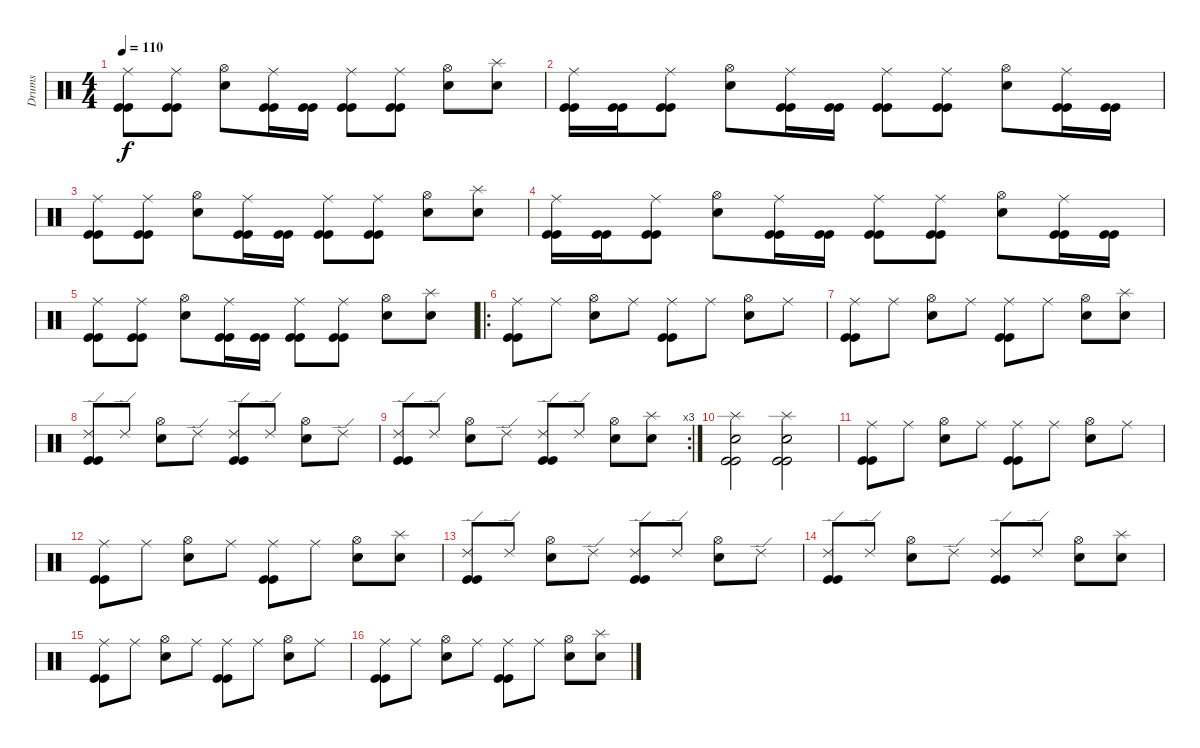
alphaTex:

\track ("Drums" "Drums") {instrument percussion}
\staff {score}
\articulation defaults
\ts (4 4)
\tempo 110
\clef neutral
\ks c
("Ride (middle)" "Kick (hit)" "Kick (hit)").8{dy f} ("Ride (middle)" "Kick (hit)" "Kick (hit)").8 ("Hi-Hat (open)" "Snare (hit) 2").8 ("Ride (middle)" "Kick (hit)" "Kick (hit)").16 ("Kick (hit)" "Kick (hit)").16 ("Ride (middle)" "Kick (hit)" "Kick (hit)").8 ("Ride (middle)" "Kick (hit)" "Kick (hit)").8 ("Hi-Hat (open)" "Snare (hit) 2").8 ("Splash (hit)" "Snare (hit) 2").8 |
("Ride (middle)" "Kick (hit)" "Kick (hit)").16 ("Kick (hit)" "Kick (hit)").16 ("Ride (middle)" "Kick (hit)" "Kick (hit)").8 ("Hi-Hat (open)" "Snare (hit) 2").8 ("Ride (middle)" "Kick (hit)" "Kick (hit)").16 ("Kick (hit)" "Kick (hit)").16 ("Ride (middle)" "Kick (hit)" "Kick (hit)").8 ("Ride (middle)" "Kick (hit)" "Kick (hit)").8 ("Hi-Hat (open)" "Snare (hit) 2").8 ("Ride (middle)" "Kick (hit)" "Kick (hit)").16 ("Kick (hit)" "Kick (hit)").16 |
("Ride (middle)" "Kick (hit)" "Kick (hit)").8 ("Ride (middle)" "Kick (hit)" "Kick (hit)").8 ("Hi-Hat (open)" "Snare (hit) 2").8 ("Ride (middle)" "Kick (hit)" "Kick (hit)").16 ("Kick (hit)" "Kick (hit)").16 ("Ride (middle)" "Kick (hit)" "Kick (hit)").8 ("Ride (middle)" "Kick (hit)" "Kick (hit)").8 ("Hi-Hat (open)" "Snare (hit) 2").8 ("Splash (hit)" "Snare (hit) 2").8 |
("Ride (middle)" "Kick (hit)" "Kick (hit)").16 ("Kick (hit)" "Kick (hit)").16 ("Ride (middle)" "Kick (hit)" "Kick (hit)").8 ("Hi-Hat (open)" "Snare (hit) 2").8 ("Ride (middle)" "Kick (hit)" "Kick (hit)").16 ("Kick (hit)" "Kick (hit)").16 ("Ride (middle)" "Kick (hit)" "Kick (hit)").8 ("Ride (middle)" "Kick (hit)" "Kick (hit)").8 ("Hi-Hat (open)" "Snare (hit) 2").8 ("Ride (middle)" "Kick (hit)" "Kick (hit)").16 ("Kick (hit)" "Kick (hit)").16 |
("Ride (middle)" "Kick (hit)" "Kick (hit)").8 ("Ride (middle)" "Kick (hit)" "Kick (hit)").8 ("Hi-Hat (open)" "Snare (hit) 2").8 ("Ride (middle)" "Kick (hit)" "Kick (hit)").16 ("Kick (hit)" "Kick (hit)").16 ("Ride (middle)" "Kick (hit)" "Kick (hit)").8 ("Ride (middle)" "Kick (hit)" "Kick (hit)").8 ("Hi-Hat (open)" "Snare (hit) 2").8 ("Splash (hit)" "Snare (hit) 2").8 |
\ro
("Ride (middle)" "Kick (hit)" "Kick (hit)").8 "Ride (middle)".8 ("Hi-Hat (open)" "Snare (hit) 2").8 "Ride (middle)".8 ("Ride (middle)" "Kick (hit)" "Kick (hit)").8 "Ride (middle)".8 ("Hi-Hat (open)" "Snare (hit) 2").8 "Ride (middle)".8 |
("Ride (middle)" "Kick (hit)" "Kick (hit)").8 "Ride (middle)".8 ("Hi-Hat (open)" "Snare (hit) 2").8 "Ride (middle)".8 ("Ride (middle)" "Kick (hit)" "Kick (hit)").8 "Ride (middle)".8 ("Hi-Hat (open)" "Snare (hit) 2").8 ("Splash (hit)" "Snare (hit) 2").8 |
("Ride (edge) 2" "Kick (hit)" "Kick (hit)").8 "Ride (edge) 2".8 ("Hi-Hat (open)" "Snare (hit) 2").8 "Ride (edge) 2".8 ("Ride (edge) 2" "Kick (hit)" "Kick (hit)").8 "Ride (edge) 2".8 ("Hi-Hat (open)" "Snare (hit) 2").8 "Ride (edge) 2".8 |
\rc 3
("Ride (edge) 2" "Kick (hit)" "Kick (hit)").8 "Ride (edge) 2".8 ("Hi-Hat (open)" "Snare (hit) 2").8 "Ride (edge) 2".8 ("Ride (edge) 2" "Kick (hit)" "Kick (hit)").8 "Ride (edge) 2".8 ("Hi-Hat (open)" "Snare (hit) 2").8 ("Splash (hit)" "Snare (hit) 2").8 |
("Splash (hit)" "Snare (hit) 2" "Kick (hit)" "Kick (hit)").2 ("Splash (hit)" "Snare (hit) 2" "Kick (hit)" "Kick (hit)").2 |
("Ride (middle)" "Kick (hit)" "Kick (hit)").8 "Ride (middle)".8 ("Hi-Hat (open)" "Snare (hit) 2").8 "Ride (middle)".8 ("Ride (middle)" "Kick (hit)" "Kick (hit)").8 "Ride (middle)".8 ("Hi-Hat (open)" "Snare (hit) 2").8 "Ride (middle)".8 |
("Ride (middle)" "Kick (hit)" "Kick (hit)").8 "Ride (middle)".8 ("Hi-Hat (open)" "Snare (hit) 2").8 "Ride (middle)".8 ("Ride (middle)" "Kick (hit)" "Kick (hit)").8 "Ride (middle)".8 ("Hi-Hat (open)" "Snare (hit) 2").8 ("Splash (hit)" "Snare (hit) 2").8 |
("Ride (edge) 2" "Kick (hit)" "Kick (hit)").8 "Ride (edge) 2".8 ("Hi-Hat (open)" "Snare (hit) 2").8 "Ride (edge) 2".8 ("Ride (edge) 2" "Kick (hit)" "Kick (hit)").8 "Ride (edge) 2".8 ("Hi-Hat (open)" "Snare (hit) 2").8 "Ride (edge) 2".8 |
("Ride (edge) 2" "Kick (hit)" "Kick (hit)").8 "Ride (edge) 2".8 ("Hi-Hat (open)" "Snare (hit) 2").8 "Ride (edge) 2".8 ("Ride (edge) 2" "Kick (hit)" "Kick (hit)").8 "Ride (edge) 2".8 ("Hi-Hat (open)" "Snare (hit) 2").8 ("Splash (hit)" "Snare (hit) 2").8 |
("Ride (middle)" "Kick (hit)" "Kick (hit)").8 "Ride (middle)".8 ("Hi-Hat (open)" "Snare (hit) 2").8 "Ride (middle)".8 ("Ride (middle)" "Kick (hit)" "Kick (hit)").8 "Ride (middle)".8 ("Hi-Hat (open)" "Snare (hit) 2").8 "Ride (middle)".8 |
("Ride (middle)" "Kick (hit)" "Kick (hit)").8 "Ride (middle)".8 ("Hi-Hat (open)" "Snare (hit) 2").8 "Ride (middle)".8 ("Ride (middle)" "Kick (hit)" "Kick (hit)").8 "Ride (middle)".8 ("Hi-Hat (open)" "Snare (hit) 2").8 ("Splash (hit)" "Snare (hit) 2").8
